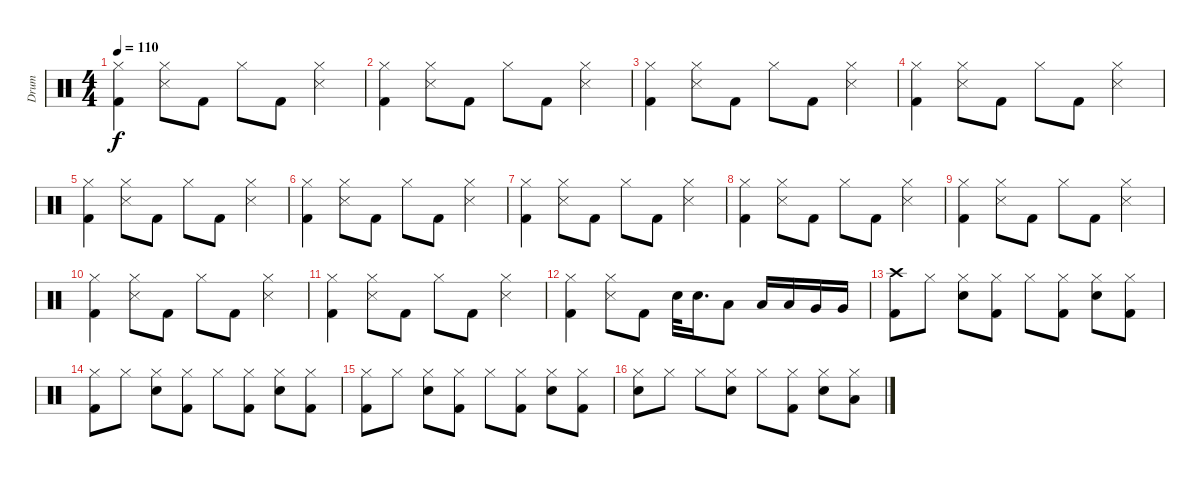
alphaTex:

\track ("Drum" "Drum") {instrument percussion}
\staff {score}
\articulation defaults
\ts (4 4)
\tempo 110
\clef neutral
\ks c
("Hi-Hat (closed)" "Kick (hit) 2").4{dy f} ("Hi-Hat (closed)" "Snare (side stick) 3").8 "Kick (hit) 2".8 "Hi-Hat (closed)".8 "Kick (hit) 2".8 ("Hi-Hat (closed)" "Snare (side stick) 3").4 |
("Hi-Hat (closed)" "Kick (hit) 2").4 ("Hi-Hat (closed)" "Snare (side stick) 3").8 "Kick (hit) 2".8 "Hi-Hat (closed)".8 "Kick (hit) 2".8 ("Hi-Hat (closed)" "Snare (side stick) 3").4 |
("Hi-Hat (closed)" "Kick (hit) 2").4 ("Hi-Hat (closed)" "Snare (side stick) 3").8 "Kick (hit) 2".8 "Hi-Hat (closed)".8 "Kick (hit) 2".8 ("Hi-Hat (closed)" "Snare (side stick) 3").4 |
("Hi-Hat (closed)" "Kick (hit) 2").4 ("Hi-Hat (closed)" "Snare (side stick) 3").8 "Kick (hit) 2".8 "Hi-Hat (closed)".8 "Kick (hit) 2".8 ("Hi-Hat (closed)" "Snare (side stick) 3").4 |
("Hi-Hat (closed)" "Kick (hit) 2").4 ("Hi-Hat (closed)" "Snare (side stick) 3").8 "Kick (hit) 2".8 "Hi-Hat (closed)".8 "Kick (hit) 2".8 ("Hi-Hat (closed)" "Snare (side stick) 3").4 |
("Hi-Hat (closed)" "Kick (hit) 2").4 ("Hi-Hat (closed)" "Snare (side stick) 3").8 "Kick (hit) 2".8 "Hi-Hat (closed)".8 "Kick (hit) 2".8 ("Hi-Hat (closed)" "Snare (side stick) 3").4 |
("Hi-Hat (closed)" "Kick (hit) 2").4 ("Hi-Hat (closed)" "Snare (side stick) 3").8 "Kick (hit) 2".8 "Hi-Hat (closed)".8 "Kick (hit) 2".8 ("Hi-Hat (closed)" "Snare (side stick) 3").4 |
("Hi-Hat (closed)" "Kick (hit) 2").4 ("Hi-Hat (closed)" "Snare (side stick) 3").8 "Kick (hit) 2".8 "Hi-Hat (closed)".8 "Kick (hit) 2".8 ("Hi-Hat (closed)" "Snare (side stick) 3").4 |
("Hi-Hat (closed)" "Kick (hit) 2").4 ("Hi-Hat (closed)" "Snare (side stick) 3").8 "Kick (hit) 2".8 "Hi-Hat (closed)".8 "Kick (hit) 2".8 ("Hi-Hat (closed)" "Snare (side stick) 3").4 |
("Hi-Hat (closed)" "Kick (hit) 2").4 ("Hi-Hat (closed)" "Snare (side stick) 3").8 "Kick (hit) 2".8 "Hi-Hat (closed)".8 "Kick (hit) 2".8 ("Hi-Hat (closed)" "Snare (side stick) 3").4 |
("Hi-Hat (closed)" "Kick (hit) 2").4 ("Hi-Hat (closed)" "Snare (side stick) 3").8 "Kick (hit) 2".8 "Hi-Hat (closed)".8 "Kick (hit) 2".8 ("Hi-Hat (closed)" "Snare (side stick) 3").4 |
("Hi-Hat (closed)" "Kick (hit) 2").4 ("Hi-Hat (closed)" "Snare (side stick) 3").8 "Kick (hit) 2".8 "Electric Snare (hit)".32 "Electric Snare (hit)".16{d} "Low Tom (hit)".8 "Low Tom (hit)".16 "Low Tom (hit)".16 "Very Low Tom (hit)".16 "Very Low Tom (hit)".16 |
("Crash high (hit)" "Kick (hit) 2").8 "Hi-Hat (closed)".8 ("Hi-Hat (closed)" "Electric Snare (hit)").8 ("Hi-Hat (closed)" "Kick (hit) 2").8 "Hi-Hat (closed)".8 ("Hi-Hat (closed)" "Kick (hit) 2").8 ("Hi-Hat (closed)" "Electric Snare (hit)").8 ("Hi-Hat (closed)" "Kick (hit) 2").8 |
("Hi-Hat (closed)" "Kick (hit) 2").8 "Hi-Hat (closed)".8 ("Hi-Hat (closed)" "Electric Snare (hit)").8 ("Hi-Hat (closed)" "Kick (hit) 2").8 "Hi-Hat (closed)".8 ("Hi-Hat (closed)" "Kick (hit) 2").8 ("Hi-Hat (closed)" "Electric Snare (hit)").8 ("Hi-Hat (closed)" "Kick (hit) 2").8 |
("Hi-Hat (closed)" "Kick (hit) 2").8 "Hi-Hat (closed)".8 ("Hi-Hat (closed)" "Electric Snare (hit)").8 ("Hi-Hat (closed)" "Kick (hit) 2").8 "Hi-Hat (closed)".8 ("Hi-Hat (closed)" "Kick (hit) 2").8 ("Hi-Hat (closed)" "Electric Snare (hit)").8 ("Hi-Hat (closed)" "Kick (hit) 2").8 |
("Hi-Hat (closed)" "Electric Snare (hit)").8 "Hi-Hat (closed)".8 "Hi-Hat (closed)".8 ("Hi-Hat (closed)" "Electric Snare (hit)").8 "Hi-Hat (closed)".8 ("Hi-Hat (closed)" "Kick (hit) 2").8 ("Hi-Hat (closed)" "Electric Snare (hit)").8 ("Hi-Hat (closed)" "Low Tom (hit)").8
